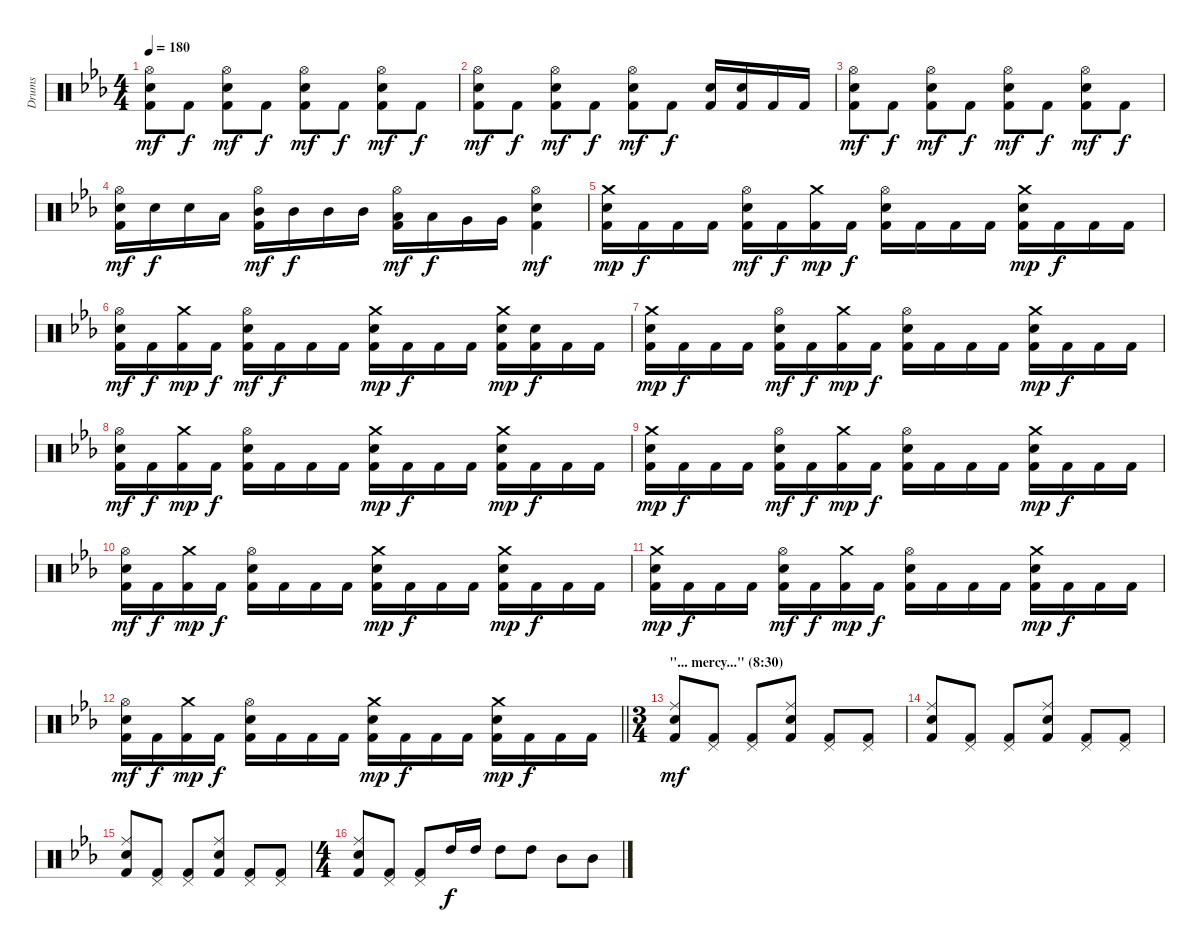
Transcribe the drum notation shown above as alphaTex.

\track ("Drums" "Drums") {instrument percussion}
\staff {score}
\articulation defaults
\ts (4 4)
\tempo 180
\clef neutral
\ks eb
("Hi-Hat (open)" "Electric Snare (hit)" "Kick (hit) 2").8{dy mf} "Kick (hit) 2".8{dy f} ("Hi-Hat (open)" "Electric Snare (hit)" "Kick (hit) 2").8{dy mf} "Kick (hit) 2".8{dy f} ("Hi-Hat (open)" "Electric Snare (hit)" "Kick (hit) 2").8{dy mf} "Kick (hit) 2".8{dy f} ("Hi-Hat (open)" "Electric Snare (hit)" "Kick (hit) 2").8{dy mf} "Kick (hit) 2".8{dy f} |
("Hi-Hat (open)" "Electric Snare (hit)" "Kick (hit) 2").8{dy mf} "Kick (hit) 2".8{dy f} ("Hi-Hat (open)" "Electric Snare (hit)" "Kick (hit) 2").8{dy mf} "Kick (hit) 2".8{dy f} ("Hi-Hat (open)" "Electric Snare (hit)" "Kick (hit) 2").8{dy mf} "Kick (hit) 2".8{dy f} ("Electric Snare (hit)" "Kick (hit) 2").16 ("Electric Snare (hit)" "Kick (hit) 2").16 "Kick (hit) 2".16 "Kick (hit) 2".16 |
("Hi-Hat (open)" "Electric Snare (hit)" "Kick (hit) 2").8{dy mf} "Kick (hit) 2".8{dy f} ("Hi-Hat (open)" "Electric Snare (hit)" "Kick (hit) 2").8{dy mf} "Kick (hit) 2".8{dy f} ("Hi-Hat (open)" "Electric Snare (hit)" "Kick (hit) 2").8{dy mf} "Kick (hit) 2".8{dy f} ("Hi-Hat (open)" "Electric Snare (hit)" "Kick (hit) 2").8{dy mf} "Kick (hit) 2".8{dy f} |
("Hi-Hat (open)" "Electric Snare (hit)" "Kick (hit) 2").16{dy mf} "Electric Snare (hit)".16{dy f} "Electric Snare (hit)".16 "Low Floor Tom (hit)".16 ("Hi-Hat (open)" "Mid Tom (hit)" "Kick (hit) 2").16{dy mf} "Mid Tom (hit)".16{dy f} "Mid Tom (hit)".16 "Mid Tom (hit)".16 ("Hi-Hat (open)" "Low Tom (hit)" "Kick (hit) 2").16{dy mf} "Low Tom (hit)".16{dy f} "Very Low Tom (hit)".16 "Very Low Tom (hit)".16 ("Hi-Hat (open)" "Electric Snare (hit)" "Kick (hit) 2").4{dy mf} |
("Crash medium (hit)" "Electric Snare (hit)" "Kick (hit) 2").16{dy mp} "Kick (hit) 2".16{dy f} "Kick (hit) 2".16 "Kick (hit) 2".16 ("Hi-Hat (open)" "Electric Snare (hit)" "Kick (hit) 2").16{dy mf} "Kick (hit) 2".16{dy f} ("Crash medium (hit)" "Kick (hit) 2").16{dy mp} "Kick (hit) 2".16{dy f} ("Hi-Hat (open)" "Electric Snare (hit)" "Kick (hit) 2").16 "Kick (hit) 2".16 "Kick (hit) 2".16 "Kick (hit) 2".16 ("Crash medium (hit)" "Electric Snare (hit)" "Kick (hit) 2").16{dy mp} "Kick (hit) 2".16{dy f} "Kick (hit) 2".16 "Kick (hit) 2".16 |
("Hi-Hat (open)" "Electric Snare (hit)" "Kick (hit) 2").16{dy mf} "Kick (hit) 2".16{dy f} ("Crash medium (hit)" "Kick (hit) 2").16{dy mp} "Kick (hit) 2".16{dy f} ("Hi-Hat (open)" "Electric Snare (hit)" "Kick (hit) 2").16{dy mf} "Kick (hit) 2".16{dy f} "Kick (hit) 2".16 "Kick (hit) 2".16 ("Crash medium (hit)" "Electric Snare (hit)" "Kick (hit) 2").16{dy mp} "Kick (hit) 2".16{dy f} "Kick (hit) 2".16 "Kick (hit) 2".16 ("Crash medium (hit)" "Electric Snare (hit)" "Kick (hit) 2").16{dy mp} ("Electric Snare (hit)" "Kick (hit) 2").16{dy f} "Kick (hit) 2".16 "Kick (hit) 2".16 |
("Crash medium (hit)" "Electric Snare (hit)" "Kick (hit) 2").16{dy mp} "Kick (hit) 2".16{dy f} "Kick (hit) 2".16 "Kick (hit) 2".16 ("Hi-Hat (open)" "Electric Snare (hit)" "Kick (hit) 2").16{dy mf} "Kick (hit) 2".16{dy f} ("Crash medium (hit)" "Kick (hit) 2").16{dy mp} "Kick (hit) 2".16{dy f} ("Hi-Hat (open)" "Electric Snare (hit)" "Kick (hit) 2").16 "Kick (hit) 2".16 "Kick (hit) 2".16 "Kick (hit) 2".16 ("Crash medium (hit)" "Electric Snare (hit)" "Kick (hit) 2").16{dy mp} "Kick (hit) 2".16{dy f} "Kick (hit) 2".16 "Kick (hit) 2".16 |
("Hi-Hat (open)" "Electric Snare (hit)" "Kick (hit) 2").16{dy mf} "Kick (hit) 2".16{dy f} ("Crash medium (hit)" "Kick (hit) 2").16{dy mp} "Kick (hit) 2".16{dy f} ("Hi-Hat (open)" "Electric Snare (hit)" "Kick (hit) 2").16 "Kick (hit) 2".16 "Kick (hit) 2".16 "Kick (hit) 2".16 ("Crash medium (hit)" "Electric Snare (hit)" "Kick (hit) 2").16{dy mp} "Kick (hit) 2".16{dy f} "Kick (hit) 2".16 "Kick (hit) 2".16 ("Crash medium (hit)" "Electric Snare (hit)" "Kick (hit) 2").16{dy mp} "Kick (hit) 2".16{dy f} "Kick (hit) 2".16 "Kick (hit) 2".16 |
("Crash medium (hit)" "Electric Snare (hit)" "Kick (hit) 2").16{dy mp} "Kick (hit) 2".16{dy f} "Kick (hit) 2".16 "Kick (hit) 2".16 ("Hi-Hat (open)" "Electric Snare (hit)" "Kick (hit) 2").16{dy mf} "Kick (hit) 2".16{dy f} ("Crash medium (hit)" "Kick (hit) 2").16{dy mp} "Kick (hit) 2".16{dy f} ("Hi-Hat (open)" "Electric Snare (hit)" "Kick (hit) 2").16 "Kick (hit) 2".16 "Kick (hit) 2".16 "Kick (hit) 2".16 ("Crash medium (hit)" "Electric Snare (hit)" "Kick (hit) 2").16{dy mp} "Kick (hit) 2".16{dy f} "Kick (hit) 2".16 "Kick (hit) 2".16 |
("Hi-Hat (open)" "Electric Snare (hit)" "Kick (hit) 2").16{dy mf} "Kick (hit) 2".16{dy f} ("Crash medium (hit)" "Kick (hit) 2").16{dy mp} "Kick (hit) 2".16{dy f} ("Hi-Hat (open)" "Electric Snare (hit)" "Kick (hit) 2").16 "Kick (hit) 2".16 "Kick (hit) 2".16 "Kick (hit) 2".16 ("Crash medium (hit)" "Electric Snare (hit)" "Kick (hit) 2").16{dy mp} "Kick (hit) 2".16{dy f} "Kick (hit) 2".16 "Kick (hit) 2".16 ("Crash medium (hit)" "Electric Snare (hit)" "Kick (hit) 2").16{dy mp} "Kick (hit) 2".16{dy f} "Kick (hit) 2".16 "Kick (hit) 2".16 |
("Crash medium (hit)" "Electric Snare (hit)" "Kick (hit) 2").16{dy mp} "Kick (hit) 2".16{dy f} "Kick (hit) 2".16 "Kick (hit) 2".16 ("Hi-Hat (open)" "Electric Snare (hit)" "Kick (hit) 2").16{dy mf} "Kick (hit) 2".16{dy f} ("Crash medium (hit)" "Kick (hit) 2").16{dy mp} "Kick (hit) 2".16{dy f} ("Hi-Hat (open)" "Electric Snare (hit)" "Kick (hit) 2").16 "Kick (hit) 2".16 "Kick (hit) 2".16 "Kick (hit) 2".16 ("Crash medium (hit)" "Electric Snare (hit)" "Kick (hit) 2").16{dy mp} "Kick (hit) 2".16{dy f} "Kick (hit) 2".16 "Kick (hit) 2".16 |
\barLineRight lightlight
("Hi-Hat (open)" "Electric Snare (hit)" "Kick (hit) 2").16{dy mf} "Kick (hit) 2".16{dy f} ("Crash medium (hit)" "Kick (hit) 2").16{dy mp} "Kick (hit) 2".16{dy f} ("Hi-Hat (open)" "Electric Snare (hit)" "Kick (hit) 2").16 "Kick (hit) 2".16 "Kick (hit) 2".16 "Kick (hit) 2".16 ("Crash medium (hit)" "Electric Snare (hit)" "Kick (hit) 2").16{dy mp} "Kick (hit) 2".16{dy f} "Kick (hit) 2".16 "Kick (hit) 2".16 ("Crash medium (hit)" "Electric Snare (hit)" "Kick (hit) 2").16{dy mp} "Kick (hit) 2".16{dy f} "Kick (hit) 2".16 "Kick (hit) 2".16 |
\ts (3 4)
\section ("" "\"... mercy...\" (8:30)")
("Ride (middle)" "Electric Snare (hit)" "Kick (hit) 2").8{dy mf} ("Pedal Hi-Hat (hit)" "Kick (hit) 2").8 ("Pedal Hi-Hat (hit)" "Kick (hit) 2").8 ("Ride (middle)" "Electric Snare (hit)" "Kick (hit) 2").8 ("Pedal Hi-Hat (hit)" "Kick (hit) 2").8 ("Pedal Hi-Hat (hit)" "Kick (hit) 2").8 |
("Ride (middle)" "Electric Snare (hit)" "Kick (hit) 2").8 ("Pedal Hi-Hat (hit)" "Kick (hit) 2").8 ("Pedal Hi-Hat (hit)" "Kick (hit) 2").8 ("Ride (middle)" "Electric Snare (hit)" "Kick (hit) 2").8 ("Pedal Hi-Hat (hit)" "Kick (hit) 2").8 ("Pedal Hi-Hat (hit)" "Kick (hit) 2").8 |
("Ride (middle)" "Electric Snare (hit)" "Kick (hit) 2").8 ("Pedal Hi-Hat (hit)" "Kick (hit) 2").8 ("Pedal Hi-Hat (hit)" "Kick (hit) 2").8 ("Ride (middle)" "Electric Snare (hit)" "Kick (hit) 2").8 ("Pedal Hi-Hat (hit)" "Kick (hit) 2").8 ("Pedal Hi-Hat (hit)" "Kick (hit) 2").8 |
\ts (4 4)
("Ride (middle)" "Electric Snare (hit)" "Kick (hit) 2").8 ("Pedal Hi-Hat (hit)" "Kick (hit) 2").8 ("Pedal Hi-Hat (hit)" "Kick (hit) 2").8 "High Tom (hit)".16{dy f} "High Tom (hit)".16 "High Tom (hit)".8 "High Tom (hit)".8 "Mid Tom (hit)".8 "Mid Tom (hit)".8
